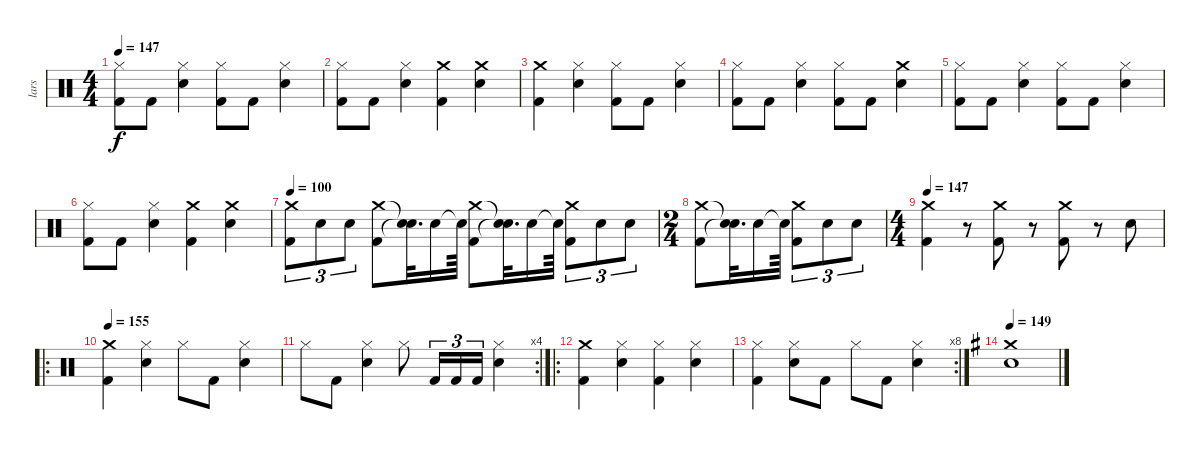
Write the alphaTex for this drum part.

\track ("lars" "lars") {instrument percussion}
\staff {score}
\articulation defaults
\ts (4 4)
\tempo 147
\clef neutral
\ks c
("Hi-Hat (closed)" "Kick (hit) 2").8{dy f} "Kick (hit) 2".8 ("Snare (hit) 2" "Hi-Hat (closed)").4 ("Hi-Hat (closed)" "Kick (hit) 2").8 "Kick (hit) 2".8 ("Snare (hit) 2" "Hi-Hat (closed)").4 |
("Hi-Hat (closed)" "Kick (hit) 2").8 "Kick (hit) 2".8 ("Snare (hit) 2" "Hi-Hat (closed)").4 ("Crash medium (hit)" "Kick (hit) 2").4 ("Crash medium (hit)" "Snare (hit) 2").4 |
("Kick (hit) 2" "Crash medium (hit)").4 ("Hi-Hat (closed)" "Snare (hit) 2").4 ("Kick (hit) 2" "Hi-Hat (closed)").8 "Kick (hit) 2".8 ("Snare (hit) 2" "Hi-Hat (closed)").4 |
("Hi-Hat (closed)" "Kick (hit) 2").8 "Kick (hit) 2".8 ("Snare (hit) 2" "Hi-Hat (closed)").4 ("Hi-Hat (closed)" "Kick (hit) 2").8 "Kick (hit) 2".8 ("Crash medium (hit)" "Snare (hit) 2").4 |
("Hi-Hat (closed)" "Kick (hit) 2").8 "Kick (hit) 2".8 ("Snare (hit) 2" "Hi-Hat (closed)").4 ("Hi-Hat (closed)" "Kick (hit) 2").8 "Kick (hit) 2".8 ("Snare (hit) 2" "Hi-Hat (closed)").4 |
("Hi-Hat (closed)" "Kick (hit) 2").8 "Kick (hit) 2".8 ("Snare (hit) 2" "Hi-Hat (closed)").4 ("Crash medium (hit)" "Kick (hit) 2").4 ("Crash medium (hit)" "Snare (hit) 2").4 |
\tempo 100
("Crash medium (hit)" "Kick (hit) 2").8{tu (3 2)} "Snare (hit) 2".8{tu (3 2)} "Snare (hit) 2".8{tu (3 2)} ("Crash medium (hit)" "Kick (hit) 2").8 ("Snare (hit)"{t} "Snare (hit)"{t}).32{d} "Snare (hit) 2".16 "Snare (hit)"{t}.64 ("Crash medium (hit)" "Kick (hit) 2").8 ("Snare (hit)"{t} "Snare (hit)"{t}).32{d} "Snare (hit) 2".16 "Snare (hit)"{t}.64 ("Crash medium (hit)" "Kick (hit) 2").8{tu (3 2)} "Snare (hit) 2".8{tu (3 2)} "Snare (hit) 2".8{tu (3 2)} |
\ts (2 4)
("Kick (hit) 2" "Crash medium (hit)").8 ("Snare (hit)"{t} "Snare (hit)"{t}).32{d} "Snare (hit) 2".16 "Snare (hit)"{t}.64 ("Kick (hit) 2" "Crash medium (hit)").8{tu (3 2)} "Snare (hit) 2".8{tu (3 2)} "Snare (hit) 2".8{tu (3 2)} |
\ts (4 4)
\tempo 147
("Crash medium (hit)" "Kick (hit) 2").4 r.8 ("Kick (hit) 2" "Crash medium (hit)").8 r.8 ("Crash medium (hit)" "Kick (hit) 2").8 r.8 "Snare (hit) 2".8 |
\ro
\tempo 155
("Kick (hit) 2" "Crash medium (hit)").4 ("Hi-Hat (closed)" "Snare (hit) 2").4 "Hi-Hat (closed)".8 "Kick (hit) 2".8 ("Snare (hit) 2" "Hi-Hat (closed)").4 |
\rc 4 "Hi-Hat (closed)".8 "Kick (hit) 2".8
("Snare (hit) 2" "Hi-Hat (closed)").4 "Hi-Hat (closed)".8 "Kick (hit) 2".16{tu (3 2)} "Kick (hit) 2".16{tu (3 2)} "Kick (hit) 2".16{tu (3 2)} ("Snare (hit) 2" "Hi-Hat (closed)").4 |
\ro
("Kick (hit) 2" "Crash medium (hit)").4 ("Hi-Hat (closed)" "Snare (hit) 2").4 ("Hi-Hat (closed)" "Kick (hit) 2").4 ("Snare (hit) 2" "Hi-Hat (closed)").4 |
\rc 8
("Hi-Hat (closed)" "Kick (hit) 2").4 ("Snare (hit) 2" "Hi-Hat (closed)").8 "Kick (hit) 2".8 "Hi-Hat (closed)".8 "Kick (hit) 2".8 ("Snare (hit) 2" "Hi-Hat (closed)").4 |
\tempo 149
\ks g
("Crash medium (hit)" "Snare (hit) 2").1
